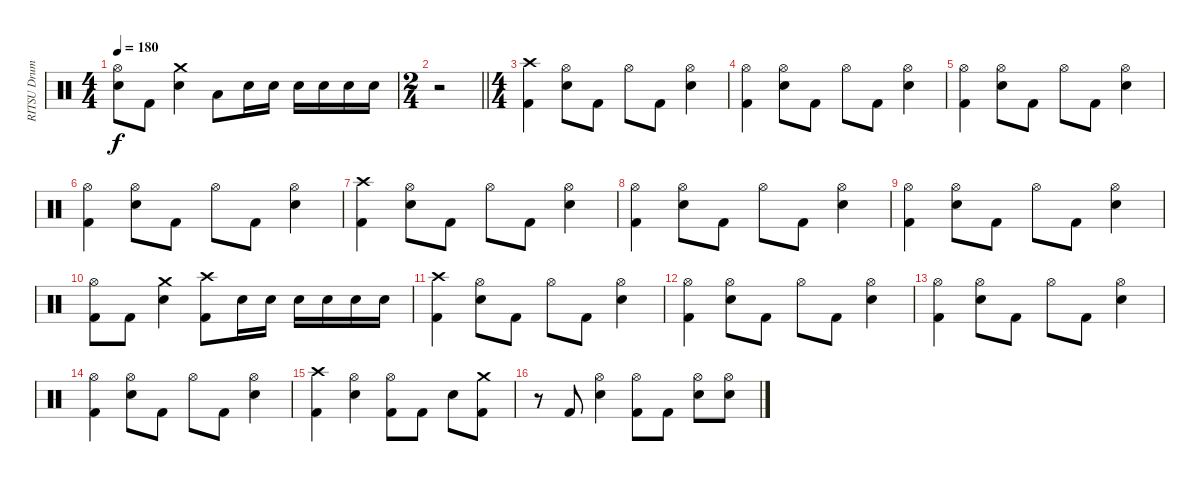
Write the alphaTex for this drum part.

\track ("RITSU Drums" "RITSU Drum") {instrument percussion}
\staff {score}
\articulation defaults
\ts (4 4)
\tempo 180
\clef neutral
\ks c
("Hi-Hat (open)" "Snare (hit) 2").8{dy f} "Kick (hit) 2".8 ("Crash medium (hit)" "Snare (hit) 2").4 "Low Tom (hit)".8 "Snare (hit) 2".16 "Snare (hit) 2".16 "Snare (hit) 2".16 "Snare (hit) 2".16 "Snare (hit) 2".16 "Snare (hit) 2".16 |
\ts (2 4)
\barLineRight lightlight
r.2{volume 0} |
\ts (4 4)
("Crash high (hit)" "Kick (hit) 2").4{volume 16} ("Hi-Hat (open)" "Snare (hit) 2").8 "Kick (hit) 2".8 "Hi-Hat (open)".8 "Kick (hit) 2".8 ("Hi-Hat (open)" "Snare (hit) 2").4 |
("Hi-Hat (open)" "Kick (hit) 2").4 ("Hi-Hat (open)" "Snare (hit) 2").8 "Kick (hit) 2".8 "Hi-Hat (open)".8 "Kick (hit) 2".8 ("Hi-Hat (open)" "Snare (hit) 2").4 |
("Hi-Hat (open)" "Kick (hit) 2").4 ("Hi-Hat (open)" "Snare (hit) 2").8 "Kick (hit) 2".8 "Hi-Hat (open)".8 "Kick (hit) 2".8 ("Hi-Hat (open)" "Snare (hit) 2").4 |
("Hi-Hat (open)" "Kick (hit) 2").4 ("Hi-Hat (open)" "Snare (hit) 2").8 "Kick (hit) 2".8 "Hi-Hat (open)".8 "Kick (hit) 2".8 ("Hi-Hat (open)" "Snare (hit) 2").4 |
("Crash high (hit)" "Kick (hit) 2").4 ("Hi-Hat (open)" "Snare (hit) 2").8 "Kick (hit) 2".8 "Hi-Hat (open)".8 "Kick (hit) 2".8 ("Hi-Hat (open)" "Snare (hit) 2").4 |
("Hi-Hat (open)" "Kick (hit) 2").4 ("Hi-Hat (open)" "Snare (hit) 2").8 "Kick (hit) 2".8 "Hi-Hat (open)".8 "Kick (hit) 2".8 ("Hi-Hat (open)" "Snare (hit) 2").4 |
("Hi-Hat (open)" "Kick (hit) 2").4 ("Hi-Hat (open)" "Snare (hit) 2").8 "Kick (hit) 2".8 "Hi-Hat (open)".8 "Kick (hit) 2".8 ("Hi-Hat (open)" "Snare (hit) 2").4 |
("Hi-Hat (open)" "Kick (hit) 2").8 "Kick (hit) 2".8 ("Crash medium (hit)" "Snare (hit) 2").4 ("Crash high (hit)" "Kick (hit) 2").8 "Snare (hit) 2".16 "Snare (hit) 2".16 "Snare (hit) 2".16 "Snare (hit) 2".16 "Snare (hit) 2".16 "Snare (hit) 2".16 |
("Crash high (hit)" "Kick (hit) 2").4 ("Hi-Hat (open)" "Snare (hit) 2").8 "Kick (hit) 2".8 "Hi-Hat (open)".8 "Kick (hit) 2".8 ("Hi-Hat (open)" "Snare (hit) 2").4 |
("Hi-Hat (open)" "Kick (hit) 2").4 ("Hi-Hat (open)" "Snare (hit) 2").8 "Kick (hit) 2".8 "Hi-Hat (open)".8 "Kick (hit) 2".8 ("Hi-Hat (open)" "Snare (hit) 2").4 |
("Hi-Hat (open)" "Kick (hit) 2").4 ("Hi-Hat (open)" "Snare (hit) 2").8 "Kick (hit) 2".8 "Hi-Hat (open)".8 "Kick (hit) 2".8 ("Hi-Hat (open)" "Snare (hit) 2").4 |
("Hi-Hat (open)" "Kick (hit) 2").4 ("Hi-Hat (open)" "Snare (hit) 2").8 "Kick (hit) 2".8 "Hi-Hat (open)".8 "Kick (hit) 2".8 ("Hi-Hat (open)" "Snare (hit) 2").4 |
("Crash high (hit)" "Kick (hit) 2").4 ("Hi-Hat (open)" "Snare (hit) 2").4 ("Hi-Hat (open)" "Kick (hit) 2").8 "Kick (hit) 2".8 "Snare (hit) 2".8 ("Crash medium (hit)" "Kick (hit) 2").8 |
r.8 "Kick (hit) 2".8 ("Hi-Hat (open)" "Snare (hit) 2").4 ("Hi-Hat (open)" "Kick (hit) 2").8 "Kick (hit) 2".8 ("Hi-Hat (open)" "Snare (hit) 2").8 ("Hi-Hat (open)" "Snare (hit) 2").8
